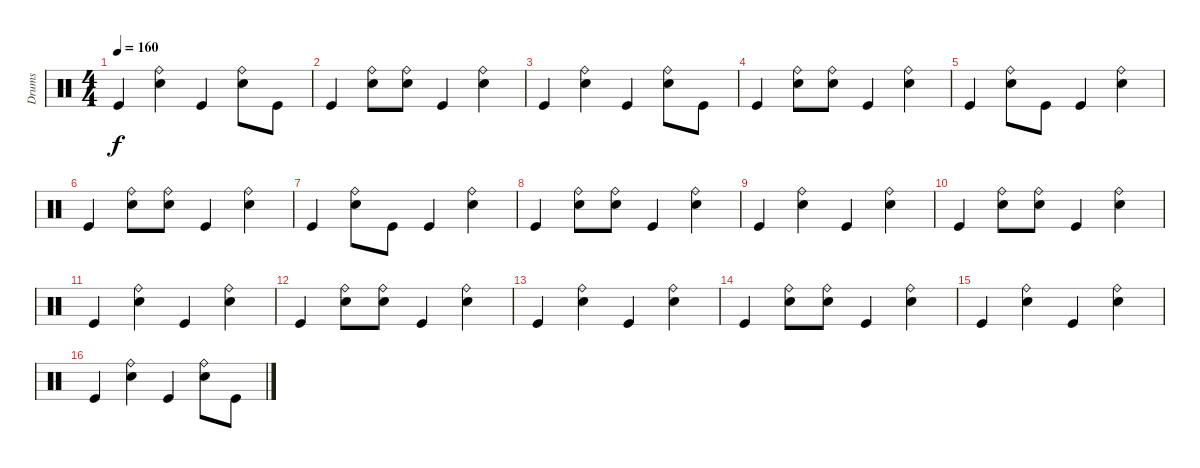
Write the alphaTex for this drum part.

\track ("Drums" "Drums") {instrument percussion}
\staff {score}
\articulation defaults
\ts (4 4)
\tempo 160
\clef neutral
\ks c "Kick (hit)".4{dy f}
("Snare (hit) 2" "Ride (bell)").4 "Kick (hit)".4 ("Snare (hit) 2" "Ride (bell)").8 "Kick (hit)".8 |
"Kick (hit)".4 ("Snare (hit) 2" "Ride (bell)").8 ("Ride (bell)" "Snare (hit) 2").8 "Kick (hit)".4 ("Snare (hit) 2" "Ride (bell)").4 |
"Kick (hit)".4 ("Snare (hit) 2" "Ride (bell)").4 "Kick (hit)".4 ("Snare (hit) 2" "Ride (bell)").8 "Kick (hit)".8 |
"Kick (hit)".4 ("Snare (hit) 2" "Ride (bell)").8 ("Ride (bell)" "Snare (hit) 2").8 "Kick (hit)".4 ("Snare (hit) 2" "Ride (bell)").4 |
"Kick (hit)".4 ("Snare (hit) 2" "Ride (bell)").8 "Kick (hit)".8 "Kick (hit)".4 ("Snare (hit) 2" "Ride (bell)").4 |
"Kick (hit)".4 ("Snare (hit) 2" "Ride (bell)").8 ("Ride (bell)" "Snare (hit) 2").8 "Kick (hit)".4 ("Snare (hit) 2" "Ride (bell)").4 |
"Kick (hit)".4 ("Snare (hit) 2" "Ride (bell)").8 "Kick (hit)".8 "Kick (hit)".4 ("Snare (hit) 2" "Ride (bell)").4 |
"Kick (hit)".4 ("Snare (hit) 2" "Ride (bell)").8 ("Ride (bell)" "Snare (hit) 2").8 "Kick (hit)".4 ("Snare (hit) 2" "Ride (bell)").4 |
"Kick (hit)".4 ("Snare (hit) 2" "Ride (bell)").4 "Kick (hit)".4 ("Snare (hit) 2" "Ride (bell)").4 |
"Kick (hit)".4 ("Snare (hit) 2" "Ride (bell)").8 ("Ride (bell)" "Snare (hit) 2").8 "Kick (hit)".4 ("Snare (hit) 2" "Ride (bell)").4 |
"Kick (hit)".4 ("Snare (hit) 2" "Ride (bell)").4 "Kick (hit)".4 ("Snare (hit) 2" "Ride (bell)").4 |
"Kick (hit)".4 ("Snare (hit) 2" "Ride (bell)").8 ("Ride (bell)" "Snare (hit) 2").8 "Kick (hit)".4 ("Snare (hit) 2" "Ride (bell)").4 |
"Kick (hit)".4 ("Snare (hit) 2" "Ride (bell)").4 "Kick (hit)".4 ("Snare (hit) 2" "Ride (bell)").4 |
"Kick (hit)".4 ("Snare (hit) 2" "Ride (bell)").8 ("Ride (bell)" "Snare (hit) 2").8 "Kick (hit)".4 ("Snare (hit) 2" "Ride (bell)").4 |
"Kick (hit)".4 ("Snare (hit) 2" "Ride (bell)").4 "Kick (hit)".4 ("Snare (hit) 2" "Ride (bell)").4 |
"Kick (hit)".4 ("Snare (hit) 2" "Ride (bell)").4 "Kick (hit)".4 ("Snare (hit) 2" "Ride (bell)").8 "Kick (hit)".8
